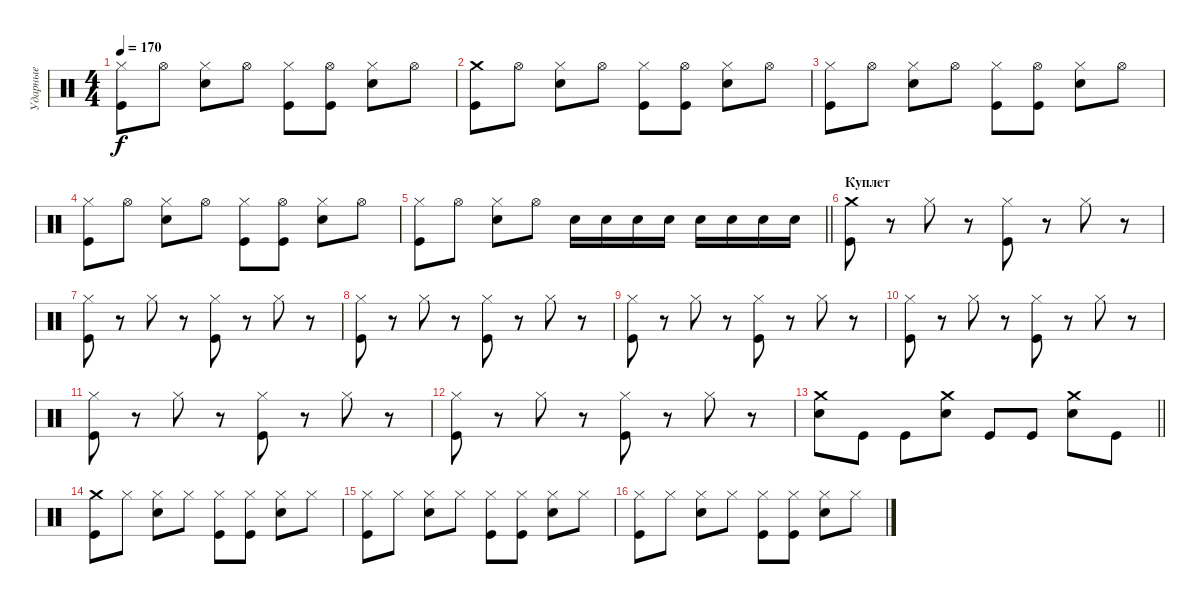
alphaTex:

\track ("Ударные" "Ударные") {instrument percussion}
\staff {score}
\articulation defaults
\ts (4 4)
\tempo 170
\clef neutral
\ks c
("Hi-Hat (closed)" "Kick (hit)").8{dy f} "Hi-Hat (open)".8 ("Hi-Hat (closed)" "Electric Snare (hit)").8 "Hi-Hat (open)".8 ("Hi-Hat (closed)" "Kick (hit)").8 ("Hi-Hat (open)" "Kick (hit)").8 ("Hi-Hat (closed)" "Electric Snare (hit)").8 "Hi-Hat (open)".8 |
("Crash medium (hit)" "Kick (hit)").8 "Hi-Hat (open)".8 ("Hi-Hat (closed)" "Electric Snare (hit)").8 "Hi-Hat (open)".8 ("Hi-Hat (closed)" "Kick (hit)").8 ("Hi-Hat (open)" "Kick (hit)").8 ("Hi-Hat (closed)" "Electric Snare (hit)").8 "Hi-Hat (open)".8 |
("Hi-Hat (closed)" "Kick (hit)").8 "Hi-Hat (open)".8 ("Hi-Hat (closed)" "Electric Snare (hit)").8 "Hi-Hat (open)".8 ("Hi-Hat (closed)" "Kick (hit)").8 ("Hi-Hat (open)" "Kick (hit)").8 ("Hi-Hat (closed)" "Electric Snare (hit)").8 "Hi-Hat (open)".8 |
("Hi-Hat (closed)" "Kick (hit)").8 "Hi-Hat (open)".8 ("Hi-Hat (closed)" "Electric Snare (hit)").8 "Hi-Hat (open)".8 ("Hi-Hat (closed)" "Kick (hit)").8 ("Hi-Hat (open)" "Kick (hit)").8 ("Hi-Hat (closed)" "Electric Snare (hit)").8 "Hi-Hat (open)".8 |
\barLineRight lightlight
("Hi-Hat (closed)" "Kick (hit)").8 "Hi-Hat (open)".8 ("Hi-Hat (closed)" "Electric Snare (hit)").8 "Hi-Hat (open)".8 "Electric Snare (hit)".16 "Electric Snare (hit)".16 "Electric Snare (hit)".16 "Electric Snare (hit)".16 "Electric Snare (hit)".16 "Electric Snare (hit)".16 "Electric Snare (hit)".16 "Electric Snare (hit)".16 |
\section ("" "Куплет")
("Crash medium (hit)" "Kick (hit)").8 r.8 "Hi-Hat (closed)".8 r.8 ("Hi-Hat (closed)" "Kick (hit)").8 r.8 "Hi-Hat (closed)".8 r.8 |
("Hi-Hat (closed)" "Kick (hit)").8 r.8 "Hi-Hat (closed)".8 r.8 ("Hi-Hat (closed)" "Kick (hit)").8 r.8 "Hi-Hat (closed)".8 r.8 |
("Hi-Hat (closed)" "Kick (hit)").8 r.8 "Hi-Hat (closed)".8 r.8 ("Hi-Hat (closed)" "Kick (hit)").8 r.8 "Hi-Hat (closed)".8 r.8 |
("Hi-Hat (closed)" "Kick (hit)").8 r.8 "Hi-Hat (closed)".8 r.8 ("Hi-Hat (closed)" "Kick (hit)").8 r.8 "Hi-Hat (closed)".8 r.8 |
("Hi-Hat (closed)" "Kick (hit)").8 r.8 "Hi-Hat (closed)".8 r.8 ("Hi-Hat (closed)" "Kick (hit)").8 r.8 "Hi-Hat (closed)".8 r.8 |
("Hi-Hat (closed)" "Kick (hit)").8 r.8 "Hi-Hat (closed)".8 r.8 ("Hi-Hat (closed)" "Kick (hit)").8 r.8 "Hi-Hat (closed)".8 r.8 |
("Hi-Hat (closed)" "Kick (hit)").8 r.8 "Hi-Hat (closed)".8 r.8 ("Hi-Hat (closed)" "Kick (hit)").8 r.8 "Hi-Hat (closed)".8 r.8 |
\barLineRight lightlight
("Crash medium (hit)" "Electric Snare (hit)").8 "Kick (hit)".8 "Kick (hit)".8 ("Crash medium (hit)" "Electric Snare (hit)").8 "Kick (hit)".8 "Kick (hit)".8 ("Crash medium (hit)" "Electric Snare (hit)").8 "Kick (hit)".8 |
\section ("" " ")
("Crash medium (hit)" "Kick (hit)").8 "Hi-Hat (closed)".8 ("Hi-Hat (closed)" "Electric Snare (hit)").8 "Hi-Hat (closed)".8 ("Hi-Hat (closed)" "Kick (hit)").8 ("Hi-Hat (closed)" "Kick (hit)").8 ("Hi-Hat (closed)" "Electric Snare (hit)").8 "Hi-Hat (closed)".8 |
("Hi-Hat (closed)" "Kick (hit)").8 "Hi-Hat (closed)".8 ("Hi-Hat (closed)" "Electric Snare (hit)").8 "Hi-Hat (closed)".8 ("Hi-Hat (closed)" "Kick (hit)").8 ("Hi-Hat (closed)" "Kick (hit)").8 ("Hi-Hat (closed)" "Electric Snare (hit)").8 "Hi-Hat (closed)".8 |
("Hi-Hat (closed)" "Kick (hit)").8 "Hi-Hat (closed)".8 ("Hi-Hat (closed)" "Electric Snare (hit)").8 "Hi-Hat (closed)".8 ("Hi-Hat (closed)" "Kick (hit)").8 ("Hi-Hat (closed)" "Kick (hit)").8 ("Hi-Hat (closed)" "Electric Snare (hit)").8 "Hi-Hat (closed)".8
